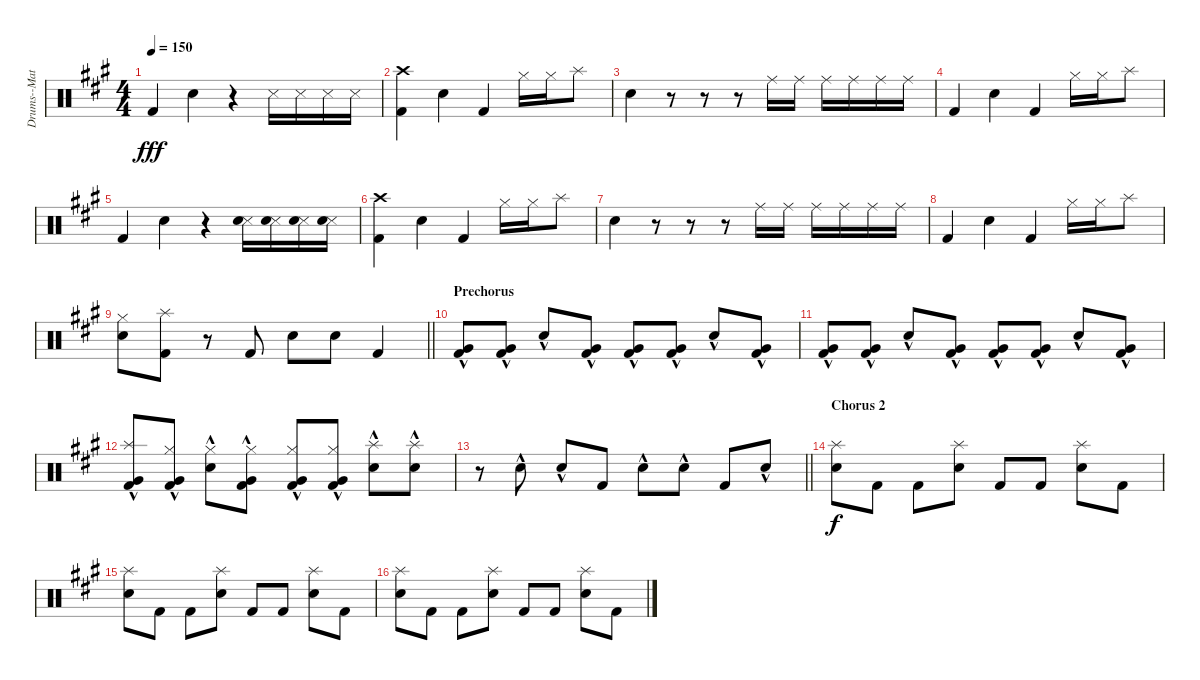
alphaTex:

\track ("Drums--Matt Whalen" "Drums--Mat") {instrument percussion}
\staff {score}
\articulation defaults
\ts (4 4)
\tempo 150
\clef neutral
\ks a "Kick (hit) 2".4{dy fff} "Snare (hit) 2".4
r.4 "Snare (side stick) 3".16 "Snare (side stick) 3".16 "Snare (side stick) 3".16 "Snare (side stick) 3".16 |
("Crash high (hit)" "Kick (hit) 2").4 "Snare (hit) 2".4 "Kick (hit) 2".4 "Hi-Hat (closed)".16 "Hi-Hat (closed)".16 "Splash (hit)".8 |
"Snare (hit) 2".4 r.8 r.8 r.8 "Ride (middle)".16 "Ride (middle)".16 "Ride (middle)".16 "Ride (middle)".16 "Ride (middle)".16 "Ride (middle)".16 |
"Kick (hit) 2".4 "Snare (hit) 2".4 "Kick (hit) 2".4 "Hi-Hat (closed)".16 "Hi-Hat (closed)".16 "Splash (hit)".8 |
"Kick (hit) 2".4 "Snare (hit) 2".4 r.4 ("Snare (side stick) 3" "Snare (hit) 2").16 ("Snare (side stick) 3" "Snare (hit) 2").16 ("Snare (side stick) 3" "Snare (hit) 2").16 ("Snare (side stick) 3" "Snare (hit) 2").16 |
("Crash high (hit)" "Kick (hit) 2").4 "Snare (hit) 2".4 "Kick (hit) 2".4 "Hi-Hat (closed)".16 "Hi-Hat (closed)".16 "Splash (hit)".8 |
"Snare (hit) 2".4 r.8 r.8 r.8 "Ride (middle)".16 "Ride (middle)".16 "Ride (middle)".16 "Ride (middle)".16 "Ride (middle)".16 "Ride (middle)".16 |
"Kick (hit) 2".4 "Snare (hit) 2".4 "Kick (hit) 2".4 "Hi-Hat (closed)".16 "Hi-Hat (closed)".16 "Splash (hit)".8 |
\barLineRight lightlight
("Hi-Hat (closed)" "Snare (hit) 2").8 ("Splash (hit)" "Kick (hit) 2").8 r.8 "Kick (hit) 2".8 "Snare (hit) 2".8 "Snare (hit) 2".8 "Kick (hit) 2".4 |
\section ("" "Prechorus")
("Kick (hit) 2"{hac} "Very Low Tom (hit)"{hac}).8 ("Kick (hit) 2"{hac} "Very Low Tom (hit)"{hac}).8 "Snare (hit) 2"{hac}.8 ("Kick (hit) 2"{hac} "Very Low Tom (hit)"{hac}).8 ("Kick (hit) 2"{hac} "Very Low Tom (hit)"{hac}).8 ("Kick (hit) 2"{hac} "Very Low Tom (hit)"{hac}).8 "Snare (hit) 2"{hac}.8 ("Kick (hit) 2"{hac} "Very Low Tom (hit)"{hac}).8 |
("Kick (hit) 2"{hac} "Very Low Tom (hit)"{hac}).8 ("Kick (hit) 2"{hac} "Very Low Tom (hit)"{hac}).8 "Snare (hit) 2"{hac}.8 ("Kick (hit) 2"{hac} "Very Low Tom (hit)"{hac}).8 ("Kick (hit) 2"{hac} "Very Low Tom (hit)"{hac}).8 ("Kick (hit) 2"{hac} "Very Low Tom (hit)"{hac}).8 "Snare (hit) 2"{hac}.8 ("Kick (hit) 2"{hac} "Very Low Tom (hit)"{hac}).8 |
("Splash (hit)"{hac} "Kick (hit) 2"{hac} "Very Low Tom (hit)"{hac}).8 ("Kick (hit) 2"{hac} "Very Low Tom (hit)"{hac} "Hi-Hat (closed)").8 ("Snare (hit) 2"{hac} "Hi-Hat (closed)").8 ("Kick (hit) 2"{hac} "Very Low Tom (hit)"{hac} "Hi-Hat (closed)").8 ("Kick (hit) 2"{hac} "Very Low Tom (hit)"{hac} "Hi-Hat (closed)").8 ("Kick (hit) 2"{hac} "Very Low Tom (hit)"{hac} "Hi-Hat (closed)").8 ("Snare (hit) 2"{hac} "Splash (hit)").8 ("Snare (hit) 2"{hac} "Splash (hit)").8 |
\barLineRight lightlight
r.8 "Snare (hit) 2"{hac}.8 "Snare (hit) 2"{hac}.8 "Kick (hit) 2".8 "Snare (hit) 2"{hac}.8 "Snare (hit) 2"{hac}.8 "Kick (hit) 2".8 "Snare (hit) 2"{hac}.8 |
\section ("" "Chorus 2")
("Snare (hit) 2" "Splash (hit)").8{dy f} "Kick (hit) 2".8 "Kick (hit) 2".8 ("Snare (hit) 2" "Splash (hit)").8 "Kick (hit) 2".8 "Kick (hit) 2".8 ("Snare (hit) 2" "Splash (hit)").8 "Kick (hit) 2".8 |
("Snare (hit) 2" "Splash (hit)").8 "Kick (hit) 2".8 "Kick (hit) 2".8 ("Snare (hit) 2" "Splash (hit)").8 "Kick (hit) 2".8 "Kick (hit) 2".8 ("Snare (hit) 2" "Splash (hit)").8 "Kick (hit) 2".8 |
("Snare (hit) 2" "Splash (hit)").8 "Kick (hit) 2".8 "Kick (hit) 2".8 ("Snare (hit) 2" "Splash (hit)").8 "Kick (hit) 2".8 "Kick (hit) 2".8 ("Snare (hit) 2" "Splash (hit)").8 "Kick (hit) 2".8
